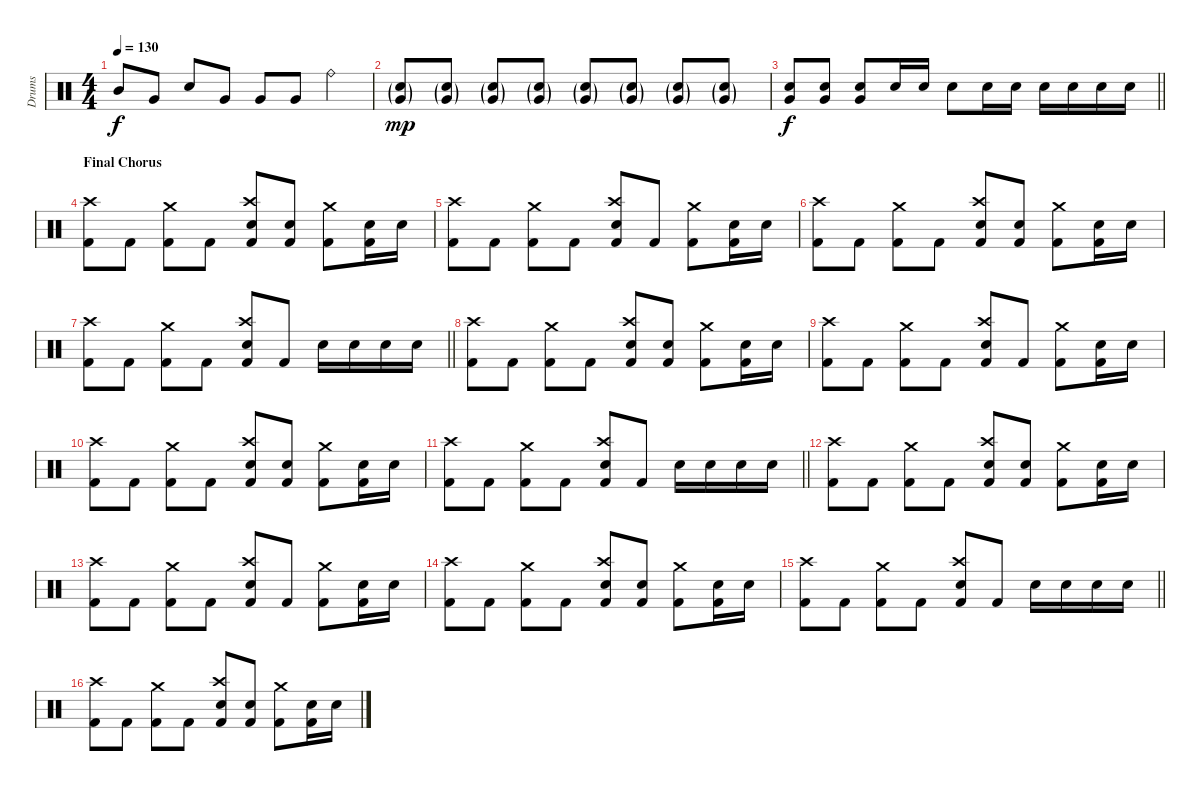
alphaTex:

\track ("Drums" "Drums") {instrument percussion}
\staff {score}
\articulation defaults
\ts (4 4)
\tempo 130
\clef neutral
\ks c "Mid Tom (hit)".8{dy f} "Very Low Tom (hit)".8 "Electric Snare (hit)".8 "Very Low Tom (hit)".8 "Very Low Tom (hit)".8 "Very Low Tom (hit)".8 "Ride (bell)".4
|
("Electric Snare (hit)"{g} "Very Low Tom (hit)"{g}).8{dy mp} ("Electric Snare (hit)"{g} "Very Low Tom (hit)"{g}).8 ("Electric Snare (hit)"{g} "Very Low Tom (hit)"{g}).8 ("Electric Snare (hit)"{g} "Very Low Tom (hit)"{g}).8 ("Electric Snare (hit)"{g} "Very Low Tom (hit)"{g}).8 ("Electric Snare (hit)"{g} "Very Low Tom (hit)"{g}).8 ("Electric Snare (hit)"{g} "Very Low Tom (hit)"{g}).8 ("Electric Snare (hit)"{g} "Very Low Tom (hit)"{g}).8 |
\barLineRight lightlight
("Electric Snare (hit)" "Very Low Tom (hit)").8{dy f} ("Electric Snare (hit)" "Very Low Tom (hit)").8 ("Electric Snare (hit)" "Very Low Tom (hit)").8 "Electric Snare (hit)".16 "Electric Snare (hit)".16 "Electric Snare (hit)".8 "Electric Snare (hit)".16 "Electric Snare (hit)".16 "Electric Snare (hit)".16 "Electric Snare (hit)".16 "Electric Snare (hit)".16 "Electric Snare (hit)".16 |
\section ("" "Final Chorus")
("Crash high (hit)" "Kick (hit) 2").8 "Kick (hit) 2".8 ("Crash medium (hit)" "Kick (hit) 2").8 "Kick (hit) 2".8 ("Crash high (hit)" "Electric Snare (hit)" "Kick (hit) 2").8 ("Electric Snare (hit)" "Kick (hit) 2").8 ("Crash medium (hit)" "Kick (hit) 2").8 ("Electric Snare (hit)" "Kick (hit) 2").16 "Electric Snare (hit)".16 |
("Crash high (hit)" "Kick (hit) 2").8 "Kick (hit) 2".8 ("Crash medium (hit)" "Kick (hit) 2").8 "Kick (hit) 2".8 ("Crash high (hit)" "Electric Snare (hit)" "Kick (hit) 2").8 "Kick (hit) 2".8 ("Crash medium (hit)" "Kick (hit) 2").8 ("Electric Snare (hit)" "Kick (hit) 2").16 "Electric Snare (hit)".16 |
("Crash high (hit)" "Kick (hit) 2").8 "Kick (hit) 2".8 ("Crash medium (hit)" "Kick (hit) 2").8 "Kick (hit) 2".8 ("Crash high (hit)" "Electric Snare (hit)" "Kick (hit) 2").8 ("Electric Snare (hit)" "Kick (hit) 2").8 ("Crash medium (hit)" "Kick (hit) 2").8 ("Electric Snare (hit)" "Kick (hit) 2").16 "Electric Snare (hit)".16 |
\barLineRight lightlight
("Crash high (hit)" "Kick (hit) 2").8 "Kick (hit) 2".8 ("Crash medium (hit)" "Kick (hit) 2").8 "Kick (hit) 2".8 ("Crash high (hit)" "Electric Snare (hit)" "Kick (hit) 2").8 "Kick (hit) 2".8 "Electric Snare (hit)".16 "Electric Snare (hit)".16 "Electric Snare (hit)".16 "Electric Snare (hit)".16 |
("Crash high (hit)" "Kick (hit) 2").8 "Kick (hit) 2".8 ("Crash medium (hit)" "Kick (hit) 2").8 "Kick (hit) 2".8 ("Crash high (hit)" "Electric Snare (hit)" "Kick (hit) 2").8 ("Electric Snare (hit)" "Kick (hit) 2").8 ("Crash medium (hit)" "Kick (hit) 2").8 ("Electric Snare (hit)" "Kick (hit) 2").16 "Electric Snare (hit)".16 |
("Crash high (hit)" "Kick (hit) 2").8 "Kick (hit) 2".8 ("Crash medium (hit)" "Kick (hit) 2").8 "Kick (hit) 2".8 ("Crash high (hit)" "Electric Snare (hit)" "Kick (hit) 2").8 "Kick (hit) 2".8 ("Crash medium (hit)" "Kick (hit) 2").8 ("Electric Snare (hit)" "Kick (hit) 2").16 "Electric Snare (hit)".16 |
("Crash high (hit)" "Kick (hit) 2").8 "Kick (hit) 2".8 ("Crash medium (hit)" "Kick (hit) 2").8 "Kick (hit) 2".8 ("Crash high (hit)" "Electric Snare (hit)" "Kick (hit) 2").8 ("Electric Snare (hit)" "Kick (hit) 2").8 ("Crash medium (hit)" "Kick (hit) 2").8 ("Electric Snare (hit)" "Kick (hit) 2").16 "Electric Snare (hit)".16 |
\barLineRight lightlight
("Crash high (hit)" "Kick (hit) 2").8 "Kick (hit) 2".8 ("Crash medium (hit)" "Kick (hit) 2").8 "Kick (hit) 2".8 ("Crash high (hit)" "Electric Snare (hit)" "Kick (hit) 2").8 "Kick (hit) 2".8 "Electric Snare (hit)".16 "Electric Snare (hit)".16 "Electric Snare (hit)".16 "Electric Snare (hit)".16 |
("Crash high (hit)" "Kick (hit) 2").8 "Kick (hit) 2".8 ("Crash medium (hit)" "Kick (hit) 2").8 "Kick (hit) 2".8 ("Crash high (hit)" "Electric Snare (hit)" "Kick (hit) 2").8 ("Electric Snare (hit)" "Kick (hit) 2").8 ("Crash medium (hit)" "Kick (hit) 2").8 ("Electric Snare (hit)" "Kick (hit) 2").16 "Electric Snare (hit)".16 |
("Crash high (hit)" "Kick (hit) 2").8 "Kick (hit) 2".8 ("Crash medium (hit)" "Kick (hit) 2").8 "Kick (hit) 2".8 ("Crash high (hit)" "Electric Snare (hit)" "Kick (hit) 2").8 "Kick (hit) 2".8 ("Crash medium (hit)" "Kick (hit) 2").8 ("Electric Snare (hit)" "Kick (hit) 2").16 "Electric Snare (hit)".16 |
("Crash high (hit)" "Kick (hit) 2").8 "Kick (hit) 2".8 ("Crash medium (hit)" "Kick (hit) 2").8 "Kick (hit) 2".8 ("Crash high (hit)" "Electric Snare (hit)" "Kick (hit) 2").8 ("Electric Snare (hit)" "Kick (hit) 2").8 ("Crash medium (hit)" "Kick (hit) 2").8 ("Electric Snare (hit)" "Kick (hit) 2").16 "Electric Snare (hit)".16 |
\barLineRight lightlight
("Crash high (hit)" "Kick (hit) 2").8 "Kick (hit) 2".8 ("Crash medium (hit)" "Kick (hit) 2").8 "Kick (hit) 2".8 ("Crash high (hit)" "Electric Snare (hit)" "Kick (hit) 2").8 "Kick (hit) 2".8 "Electric Snare (hit)".16 "Electric Snare (hit)".16 "Electric Snare (hit)".16 "Electric Snare (hit)".16 |
("Crash high (hit)" "Kick (hit) 2").8 "Kick (hit) 2".8 ("Crash medium (hit)" "Kick (hit) 2").8 "Kick (hit) 2".8 ("Crash high (hit)" "Electric Snare (hit)" "Kick (hit) 2").8 ("Electric Snare (hit)" "Kick (hit) 2").8 ("Crash medium (hit)" "Kick (hit) 2").8 ("Electric Snare (hit)" "Kick (hit) 2").16 "Electric Snare (hit)".16
